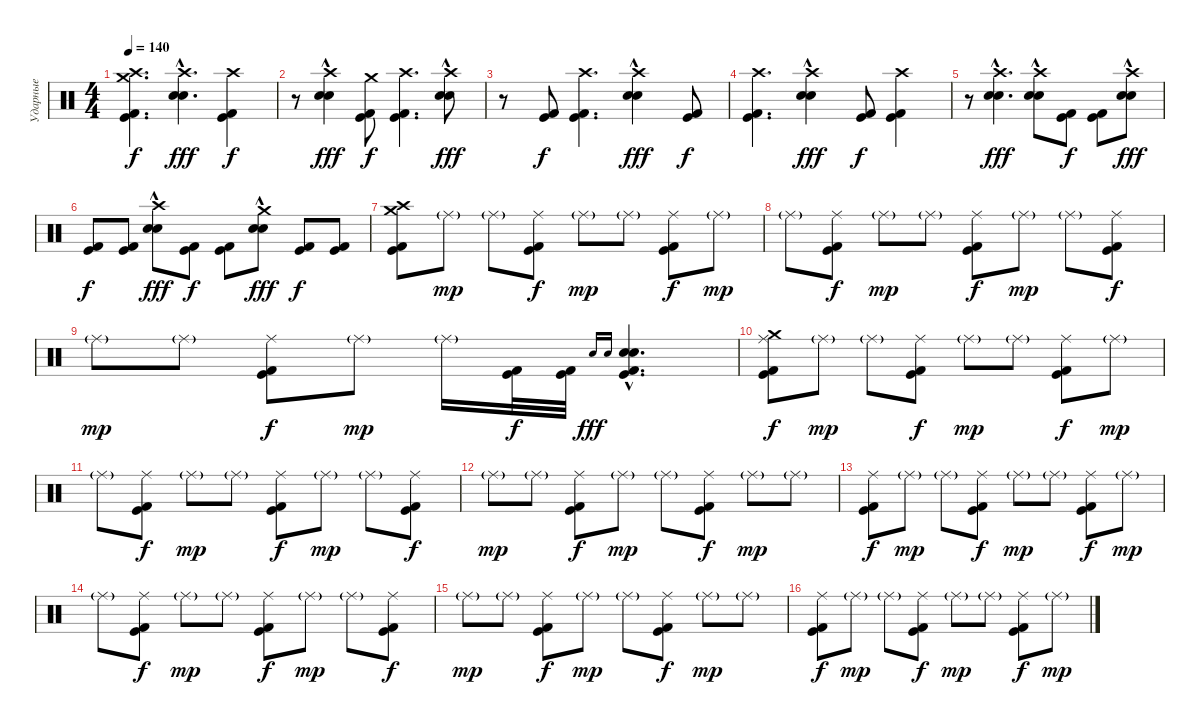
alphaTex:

\track ("Ударные" "Ударные") {instrument percussion}
\staff {score}
\articulation defaults
\ts (4 4)
\tempo 140
\clef neutral
\ks c
("Crash high (hit)" "Kick (hit)" "Kick (hit) 2" "Crash medium (hit)").4{d dy f} ("Crash high (hit)" "Snare (hit) 2"{hac} "Electric Snare (hit)"{hac}).4{d dy fff} ("Crash high (hit)" "Kick (hit)" "Kick (hit) 2").4{dy f} |
r.8 ("Crash high (hit)" "Snare (hit) 2"{hac} "Electric Snare (hit)"{hac}).4{dy fff} ("Crash medium (hit)" "Kick (hit)" "Kick (hit) 2").8{dy f} ("Crash high (hit)" "Kick (hit)" "Kick (hit) 2").4{d} ("Crash high (hit)" "Snare (hit) 2"{hac} "Electric Snare (hit)"{hac}).8{dy fff} |
r.8 ("Kick (hit)" "Kick (hit) 2").8{dy f} ("Crash high (hit)" "Kick (hit)" "Kick (hit) 2").4{d} ("Crash high (hit)" "Snare (hit) 2"{hac} "Electric Snare (hit)"{hac}).4{dy fff} ("Kick (hit)" "Kick (hit) 2").8{dy f} |
("Crash high (hit)" "Kick (hit)" "Kick (hit) 2").4{d} ("Crash high (hit)" "Snare (hit) 2"{hac} "Electric Snare (hit)"{hac}).4{dy fff} ("Kick (hit)" "Kick (hit) 2").8{dy f} ("Crash high (hit)" "Kick (hit)" "Kick (hit) 2").4 |
r.8 ("Crash high (hit)" "Snare (hit) 2"{hac} "Electric Snare (hit)"{hac}).4{d dy fff} ("Crash high (hit)" "Snare (hit) 2"{hac} "Electric Snare (hit)"{hac}).8 ("Kick (hit)" "Kick (hit) 2").8{dy f} ("Kick (hit)" "Kick (hit) 2").8 ("Crash high (hit)" "Snare (hit) 2"{hac} "Electric Snare (hit)"{hac}).8{dy fff} |
("Kick (hit)" "Kick (hit) 2").8{dy f} ("Kick (hit)" "Kick (hit) 2").8 ("Crash high (hit)" "Snare (hit) 2"{hac} "Electric Snare (hit)"{hac}).8{dy fff} ("Kick (hit)" "Kick (hit) 2").8{dy f} ("Kick (hit)" "Kick (hit) 2").8 ("Crash medium (hit)" "Snare (hit) 2"{hac} "Electric Snare (hit)"{hac}).8{dy fff} ("Kick (hit)" "Kick (hit) 2").8{dy f} ("Kick (hit)" "Kick (hit) 2").8 |
("Crash high (hit)" "Kick (hit)" "Kick (hit) 2" "Crash medium (hit)").8 "Ride (middle)"{g}.8{dy mp} "Ride (middle)"{g}.8 ("Ride (middle)" "Kick (hit)" "Kick (hit) 2").8{dy f} "Ride (middle)"{g}.8{dy mp} "Ride (middle)"{g}.8 ("Ride (middle)" "Kick (hit)" "Kick (hit) 2").8{dy f} "Ride (middle)"{g}.8{dy mp} |
"Ride (middle)"{g}.8 ("Ride (middle)" "Kick (hit)" "Kick (hit) 2").8{dy f} "Ride (middle)"{g}.8{dy mp} "Ride (middle)"{g}.8 ("Ride (middle)" "Kick (hit)" "Kick (hit) 2").8{dy f} "Ride (middle)"{g}.8{dy mp} "Ride (middle)"{g}.8 ("Ride (middle)" "Kick (hit)" "Kick (hit) 2").8{dy f} |
"Ride (middle)"{g}.8{dy mp} "Ride (middle)"{g}.8 ("Ride (middle)" "Kick (hit)" "Kick (hit) 2").8{dy f} "Ride (middle)"{g}.8{dy mp} "Ride (middle)"{g}.16 ("Kick (hit)" "Kick (hit) 2").32{dy f} ("Kick (hit)" "Kick (hit) 2").32 "Snare (hit) 2".16{gr onbeat dy fff} "Electric Snare (hit)".16{gr onbeat} ("Kick (hit)" "Kick (hit) 2" "Snare (hit) 2"{hac} "Electric Snare (hit)"{hac}).4{d} |
("Ride (middle)" "Kick (hit)" "Kick (hit) 2" "Crash medium (hit)").8{dy f} "Ride (middle)"{g}.8{dy mp} "Ride (middle)"{g}.8 ("Ride (middle)" "Kick (hit)" "Kick (hit) 2").8{dy f} "Ride (middle)"{g}.8{dy mp} "Ride (middle)"{g}.8 ("Ride (middle)" "Kick (hit)" "Kick (hit) 2").8{dy f} "Ride (middle)"{g}.8{dy mp} |
"Ride (middle)"{g}.8 ("Ride (middle)" "Kick (hit)" "Kick (hit) 2").8{dy f} "Ride (middle)"{g}.8{dy mp} "Ride (middle)"{g}.8 ("Ride (middle)" "Kick (hit)" "Kick (hit) 2").8{dy f} "Ride (middle)"{g}.8{dy mp} "Ride (middle)"{g}.8 ("Ride (middle)" "Kick (hit)" "Kick (hit) 2").8{dy f} |
"Ride (middle)"{g}.8{dy mp} "Ride (middle)"{g}.8 ("Ride (middle)" "Kick (hit)" "Kick (hit) 2").8{dy f} "Ride (middle)"{g}.8{dy mp} "Ride (middle)"{g}.8 ("Ride (middle)" "Kick (hit)" "Kick (hit) 2").8{dy f} "Ride (middle)"{g}.8{dy mp} "Ride (middle)"{g}.8 |
("Ride (middle)" "Kick (hit)" "Kick (hit) 2").8{dy f} "Ride (middle)"{g}.8{dy mp} "Ride (middle)"{g}.8 ("Ride (middle)" "Kick (hit)" "Kick (hit) 2").8{dy f} "Ride (middle)"{g}.8{dy mp} "Ride (middle)"{g}.8 ("Ride (middle)" "Kick (hit)" "Kick (hit) 2").8{dy f} "Ride (middle)"{g}.8{dy mp} |
"Ride (middle)"{g}.8 ("Ride (middle)" "Kick (hit)" "Kick (hit) 2").8{dy f} "Ride (middle)"{g}.8{dy mp} "Ride (middle)"{g}.8 ("Ride (middle)" "Kick (hit)" "Kick (hit) 2").8{dy f} "Ride (middle)"{g}.8{dy mp} "Ride (middle)"{g}.8 ("Ride (middle)" "Kick (hit)" "Kick (hit) 2").8{dy f} |
"Ride (middle)"{g}.8{dy mp} "Ride (middle)"{g}.8 ("Ride (middle)" "Kick (hit)" "Kick (hit) 2").8{dy f} "Ride (middle)"{g}.8{dy mp} "Ride (middle)"{g}.8 ("Ride (middle)" "Kick (hit)" "Kick (hit) 2").8{dy f} "Ride (middle)"{g}.8{dy mp} "Ride (middle)"{g}.8 |
("Ride (middle)" "Kick (hit)" "Kick (hit) 2").8{dy f} "Ride (middle)"{g}.8{dy mp} "Ride (middle)"{g}.8 ("Ride (middle)" "Kick (hit)" "Kick (hit) 2").8{dy f} "Ride (middle)"{g}.8{dy mp} "Ride (middle)"{g}.8 ("Ride (middle)" "Kick (hit)" "Kick (hit) 2").8{dy f} "Ride (middle)"{g}.8{dy mp}
